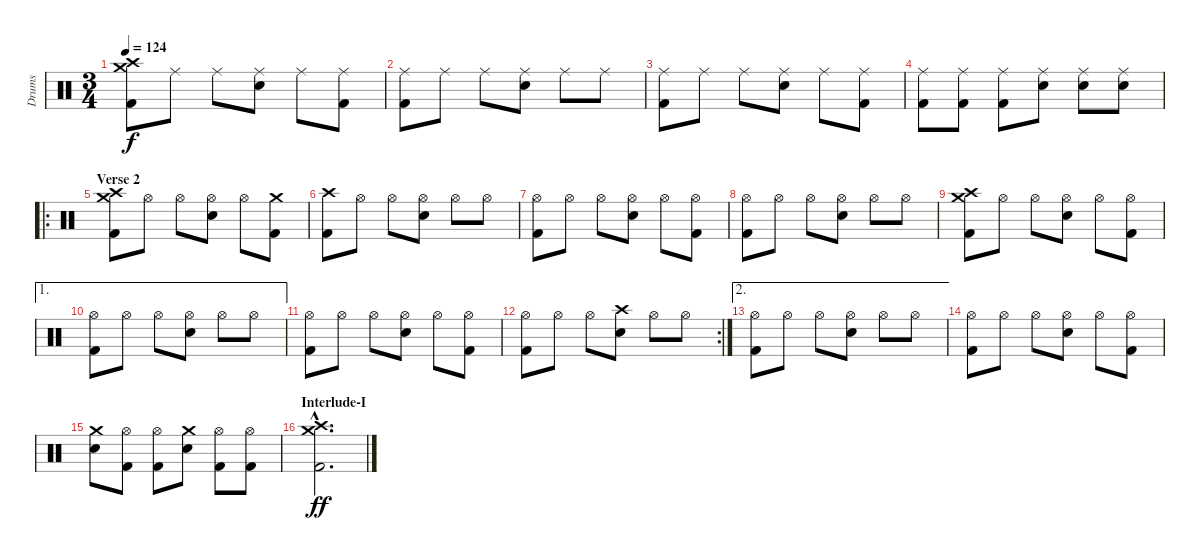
\track ("Drums" "Drums") {instrument percussion}
\staff {score}
\articulation defaults
\ts (3 4)
\tempo 124
\clef neutral
\ks c
("Crash high (hit)" "Crash medium (hit)" "Kick (hit) 2").8{dy f} "Ride (middle)".8 "Ride (middle)".8 ("Ride (middle)" "Electric Snare (hit)").8 "Ride (middle)".8 ("Ride (middle)" "Kick (hit) 2").8 |
("Ride (middle)" "Kick (hit) 2").8 "Ride (middle)".8 "Ride (middle)".8 ("Ride (middle)" "Electric Snare (hit)").8 "Ride (middle)".8 "Ride (middle)".8 |
("Ride (middle)" "Kick (hit) 2").8 "Ride (middle)".8 "Ride (middle)".8 ("Ride (middle)" "Electric Snare (hit)").8 "Ride (middle)".8 ("Ride (middle)" "Kick (hit) 2").8 |
("Ride (middle)" "Kick (hit) 2").8 ("Ride (middle)" "Kick (hit) 2").8 ("Ride (middle)" "Kick (hit) 2").8 ("Ride (middle)" "Electric Snare (hit)").8 ("Ride (middle)" "Electric Snare (hit)").8 ("Ride (middle)" "Electric Snare (hit)").8 |
\ro
\section ("" "Verse 2")
("Crash medium (hit)" "Crash high (hit)" "Kick (hit) 2").8 "Hi-Hat (open)".8 "Hi-Hat (open)".8 ("Hi-Hat (open)" "Electric Snare (hit)").8 "Hi-Hat (open)".8 ("Crash medium (hit)" "Kick (hit) 2").8 |
("Crash high (hit)" "Kick (hit) 2").8 "Hi-Hat (open)".8 "Hi-Hat (open)".8 ("Hi-Hat (open)" "Electric Snare (hit)").8 "Hi-Hat (open)".8 "Hi-Hat (open)".8 |
("Hi-Hat (open)" "Kick (hit) 2").8 "Hi-Hat (open)".8 "Hi-Hat (open)".8 ("Hi-Hat (open)" "Electric Snare (hit)").8 "Hi-Hat (open)".8 ("Hi-Hat (open)" "Kick (hit) 2").8 |
("Hi-Hat (open)" "Kick (hit) 2").8 "Hi-Hat (open)".8 "Hi-Hat (open)".8 ("Hi-Hat (open)" "Electric Snare (hit)").8 "Hi-Hat (open)".8 "Hi-Hat (open)".8 |
("Crash medium (hit)" "Crash high (hit)" "Kick (hit) 2").8 "Hi-Hat (open)".8 "Hi-Hat (open)".8 ("Hi-Hat (open)" "Electric Snare (hit)").8 "Hi-Hat (open)".8 ("Hi-Hat (open)" "Kick (hit) 2").8 |
\ae 1
("Hi-Hat (open)" "Kick (hit) 2").8 "Hi-Hat (open)".8 "Hi-Hat (open)".8 ("Hi-Hat (open)" "Electric Snare (hit)").8 "Hi-Hat (open)".8 "Hi-Hat (open)".8 |
("Hi-Hat (open)" "Kick (hit) 2").8 "Hi-Hat (open)".8 "Hi-Hat (open)".8 ("Hi-Hat (open)" "Electric Snare (hit)").8 "Hi-Hat (open)".8 ("Hi-Hat (open)" "Kick (hit) 2").8 |
\rc 2
("Hi-Hat (open)" "Kick (hit) 2").8 "Hi-Hat (open)".8 "Hi-Hat (open)".8 ("Crash high (hit)" "Electric Snare (hit)").8 "Hi-Hat (open)".8 "Hi-Hat (open)".8 |
\ae 2
("Hi-Hat (open)" "Kick (hit) 2").8 "Hi-Hat (open)".8 "Hi-Hat (open)".8 ("Hi-Hat (open)" "Electric Snare (hit)").8 "Hi-Hat (open)".8 "Hi-Hat (open)".8 |
("Hi-Hat (open)" "Kick (hit) 2").8 "Hi-Hat (open)".8 "Hi-Hat (open)".8 ("Hi-Hat (open)" "Electric Snare (hit)").8 "Hi-Hat (open)".8 ("Hi-Hat (open)" "Kick (hit) 2").8 |
("Crash medium (hit)" "Electric Snare (hit)").8 ("Hi-Hat (open)" "Kick (hit) 2").8 ("Hi-Hat (open)" "Kick (hit) 2").8 ("Crash medium (hit)" "Electric Snare (hit)").8 ("Hi-Hat (open)" "Kick (hit) 2").8 ("Hi-Hat (open)" "Kick (hit) 2").8 |
\section ("" "Interlude-I")
("Crash high (hit)"{hac} "Crash medium (hit)"{hac} "Kick (hit) 2"{hac}).2{d dy ff}
